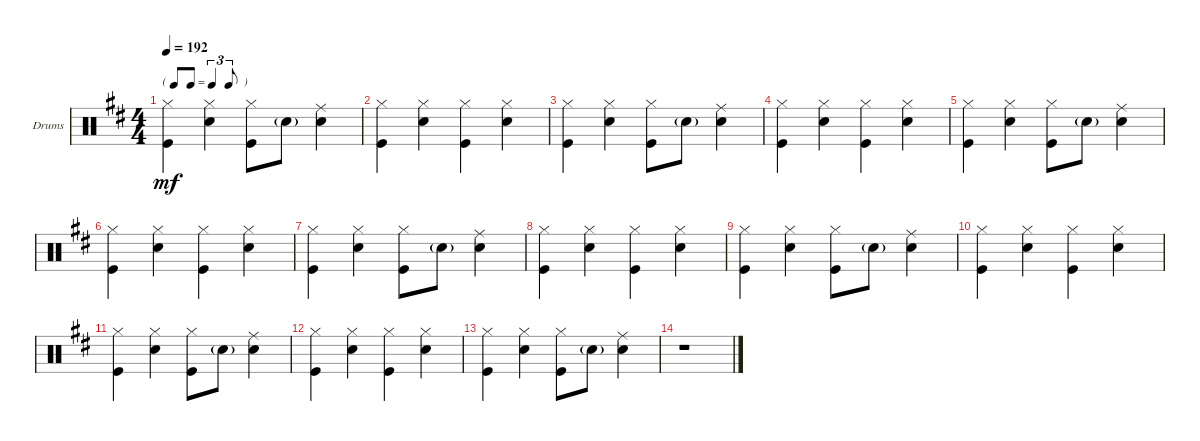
\defaultSystemsLayout 4
\bracketExtendMode groupsimilarinstruments
\firstSystemTrackNameOrientation horizontal
\otherSystemsTrackNameOrientation horizontal
\track ("Drumkit" "Drums") {instrument percussion}
\staff {score}
\articulation defaults
\ts (4 4)
\tf triplet8th
\tempo 192
\clef neutral
\ks d
("Kick (hit)" "Hi-Hat (closed)").4{dy mf} ("Snare (hit) 2" "Hi-Hat (closed)").4 ("Kick (hit)" "Hi-Hat (closed)").8 "Snare (hit) 2"{g}.8 ("Snare (hit) 2" "Ride (middle)").4 |
("Kick (hit)" "Hi-Hat (closed)").4 ("Snare (hit) 2" "Hi-Hat (closed)").4 ("Kick (hit)" "Hi-Hat (closed)").4 ("Snare (hit) 2" "Hi-Hat (closed)").4 |
("Kick (hit)" "Hi-Hat (closed)").4 ("Snare (hit) 2" "Hi-Hat (closed)").4 ("Kick (hit)" "Hi-Hat (closed)").8 "Snare (hit) 2"{g}.8 ("Snare (hit) 2" "Ride (middle)").4 |
("Kick (hit)" "Hi-Hat (closed)").4 ("Snare (hit) 2" "Hi-Hat (closed)").4 ("Kick (hit)" "Hi-Hat (closed)").4 ("Snare (hit) 2" "Hi-Hat (closed)").4 |
("Kick (hit)" "Hi-Hat (closed)").4 ("Snare (hit) 2" "Hi-Hat (closed)").4 ("Kick (hit)" "Hi-Hat (closed)").8 "Snare (hit) 2"{g}.8 ("Snare (hit) 2" "Ride (middle)").4 |
("Kick (hit)" "Hi-Hat (closed)").4 ("Snare (hit) 2" "Hi-Hat (closed)").4 ("Kick (hit)" "Hi-Hat (closed)").4 ("Snare (hit) 2" "Hi-Hat (closed)").4 |
("Kick (hit)" "Hi-Hat (closed)").4 ("Snare (hit) 2" "Hi-Hat (closed)").4 ("Kick (hit)" "Hi-Hat (closed)").8 "Snare (hit) 2"{g}.8 ("Snare (hit) 2" "Ride (middle)").4 |
("Kick (hit)" "Hi-Hat (closed)").4 ("Snare (hit) 2" "Hi-Hat (closed)").4 ("Kick (hit)" "Hi-Hat (closed)").4 ("Snare (hit) 2" "Hi-Hat (closed)").4 |
("Kick (hit)" "Hi-Hat (closed)").4 ("Snare (hit) 2" "Hi-Hat (closed)").4 ("Kick (hit)" "Hi-Hat (closed)").8 "Snare (hit) 2"{g}.8 ("Snare (hit) 2" "Ride (middle)").4 |
("Kick (hit)" "Hi-Hat (closed)").4 ("Snare (hit) 2" "Hi-Hat (closed)").4 ("Kick (hit)" "Hi-Hat (closed)").4 ("Snare (hit) 2" "Hi-Hat (closed)").4 |
("Kick (hit)" "Hi-Hat (closed)").4 ("Snare (hit) 2" "Hi-Hat (closed)").4 ("Kick (hit)" "Hi-Hat (closed)").8 "Snare (hit) 2"{g}.8 ("Snare (hit) 2" "Ride (middle)").4 |
("Kick (hit)" "Hi-Hat (closed)").4 ("Snare (hit) 2" "Hi-Hat (closed)").4 ("Kick (hit)" "Hi-Hat (closed)").4 ("Snare (hit) 2" "Hi-Hat (closed)").4 |
("Kick (hit)" "Hi-Hat (closed)").4 ("Snare (hit) 2" "Hi-Hat (closed)").4 ("Kick (hit)" "Hi-Hat (closed)").8 "Snare (hit) 2"{g}.8 ("Snare (hit) 2" "Ride (middle)").4 |
r.1
